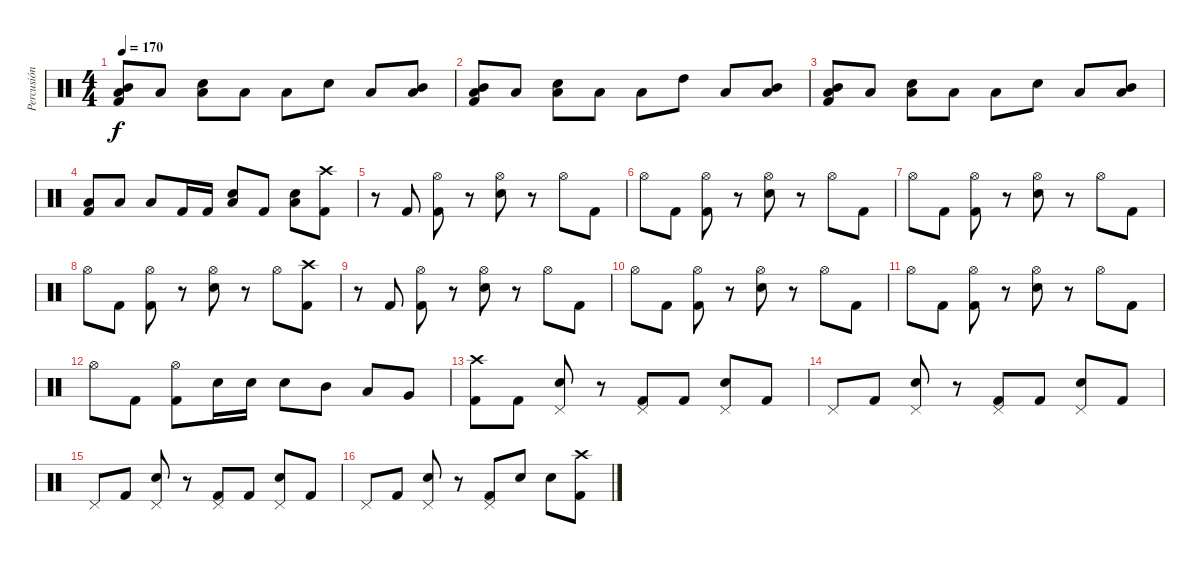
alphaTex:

\track ("Percusión" "Percusión") {instrument percussion}
\staff {score}
\articulation defaults
\ts (4 4)
\tempo 170
\clef neutral
\ks c
("Kick (hit) 2" "Mid Tom (hit)" "Low Floor Tom (hit)").8{dy f} "Low Tom (hit)".8 ("Snare (hit) 2" "Low Floor Tom (hit)").8 "Low Floor Tom (hit)".8 "Low Floor Tom (hit)".8 "Snare (hit) 2".8 "Low Floor Tom (hit)".8 ("Mid Tom (hit)" "Low Floor Tom (hit)").8 |
("Kick (hit) 2" "Mid Tom (hit)" "Low Floor Tom (hit)").8 "Low Tom (hit)".8 ("Snare (hit) 2" "Low Floor Tom (hit)").8 "Low Floor Tom (hit)".8 "Low Floor Tom (hit)".8 "High Tom (hit)".8 "Low Floor Tom (hit)".8 ("Mid Tom (hit)" "Low Floor Tom (hit)").8 |
("Kick (hit) 2" "Mid Tom (hit)" "Low Floor Tom (hit)").8 "Low Tom (hit)".8 ("Snare (hit) 2" "Low Floor Tom (hit)").8 "Low Floor Tom (hit)".8 "Low Floor Tom (hit)".8 "Snare (hit) 2".8 "Low Floor Tom (hit)".8 ("Mid Tom (hit)" "Low Floor Tom (hit)").8 |
("Kick (hit) 2" "Low Floor Tom (hit)").8 "Low Tom (hit)".8 "Low Floor Tom (hit)".8 "Kick (hit) 2".16 "Kick (hit) 2".16 ("Snare (hit) 2" "Low Floor Tom (hit)").8 "Kick (hit) 2".8 ("Snare (hit) 2" "Low Floor Tom (hit)").8 ("Kick (hit) 2" "Crash high (hit)").8 |
r.8 "Kick (hit) 2".8 ("Kick (hit) 2" "Hi-Hat (open)").8 r.8 ("Snare (hit) 2" "Hi-Hat (open)").8 r.8 "Hi-Hat (open)".8 "Kick (hit) 2".8 |
"Hi-Hat (open)".8 "Kick (hit) 2".8 ("Kick (hit) 2" "Hi-Hat (open)").8 r.8 ("Snare (hit) 2" "Hi-Hat (open)").8 r.8 "Hi-Hat (open)".8 "Kick (hit) 2".8 |
"Hi-Hat (open)".8 "Kick (hit) 2".8 ("Kick (hit) 2" "Hi-Hat (open)").8 r.8 ("Snare (hit) 2" "Hi-Hat (open)").8 r.8 "Hi-Hat (open)".8 "Kick (hit) 2".8 |
"Hi-Hat (open)".8 "Kick (hit) 2".8 ("Kick (hit) 2" "Hi-Hat (open)").8 r.8 ("Snare (hit) 2" "Hi-Hat (open)").8 r.8 "Hi-Hat (open)".8 ("Kick (hit) 2" "Crash high (hit)").8 |
r.8 "Kick (hit) 2".8 ("Kick (hit) 2" "Hi-Hat (open)").8 r.8 ("Snare (hit) 2" "Hi-Hat (open)").8 r.8 "Hi-Hat (open)".8 "Kick (hit) 2".8 |
"Hi-Hat (open)".8 "Kick (hit) 2".8 ("Kick (hit) 2" "Hi-Hat (open)").8 r.8 ("Snare (hit) 2" "Hi-Hat (open)").8 r.8 "Hi-Hat (open)".8 "Kick (hit) 2".8 |
"Hi-Hat (open)".8 "Kick (hit) 2".8 ("Kick (hit) 2" "Hi-Hat (open)").8 r.8 ("Snare (hit) 2" "Hi-Hat (open)").8 r.8 "Hi-Hat (open)".8 "Kick (hit) 2".8 |
"Hi-Hat (open)".8 "Kick (hit) 2".8 ("Kick (hit) 2" "Hi-Hat (open)").8 "Snare (hit) 2".16 "Snare (hit) 2".16 "Snare (hit) 2".8 "Mid Tom (hit)".8 "Low Tom (hit)".8 "Very Low Tom (hit)".8 |
("Kick (hit) 2" "Crash high (hit)").8 "Kick (hit) 2".8 ("Snare (hit) 2" "Pedal Hi-Hat (hit)").8 r.8 ("Kick (hit) 2" "Pedal Hi-Hat (hit)").8 "Kick (hit) 2".8 ("Snare (hit) 2" "Pedal Hi-Hat (hit)").8 "Kick (hit) 2".8 |
"Pedal Hi-Hat (hit)".8 "Kick (hit) 2".8 ("Snare (hit) 2" "Pedal Hi-Hat (hit)").8 r.8 ("Kick (hit) 2" "Pedal Hi-Hat (hit)").8 "Kick (hit) 2".8 ("Snare (hit) 2" "Pedal Hi-Hat (hit)").8 "Kick (hit) 2".8 |
"Pedal Hi-Hat (hit)".8 "Kick (hit) 2".8 ("Snare (hit) 2" "Pedal Hi-Hat (hit)").8 r.8 ("Kick (hit) 2" "Pedal Hi-Hat (hit)").8 "Kick (hit) 2".8 ("Snare (hit) 2" "Pedal Hi-Hat (hit)").8 "Kick (hit) 2".8 |
"Pedal Hi-Hat (hit)".8 "Kick (hit) 2".8 ("Snare (hit) 2" "Pedal Hi-Hat (hit)").8 r.8 ("Kick (hit) 2" "Pedal Hi-Hat (hit)").8 "Snare (hit) 2".8 "Snare (hit) 2".8 ("Kick (hit) 2" "Crash high (hit)").8
